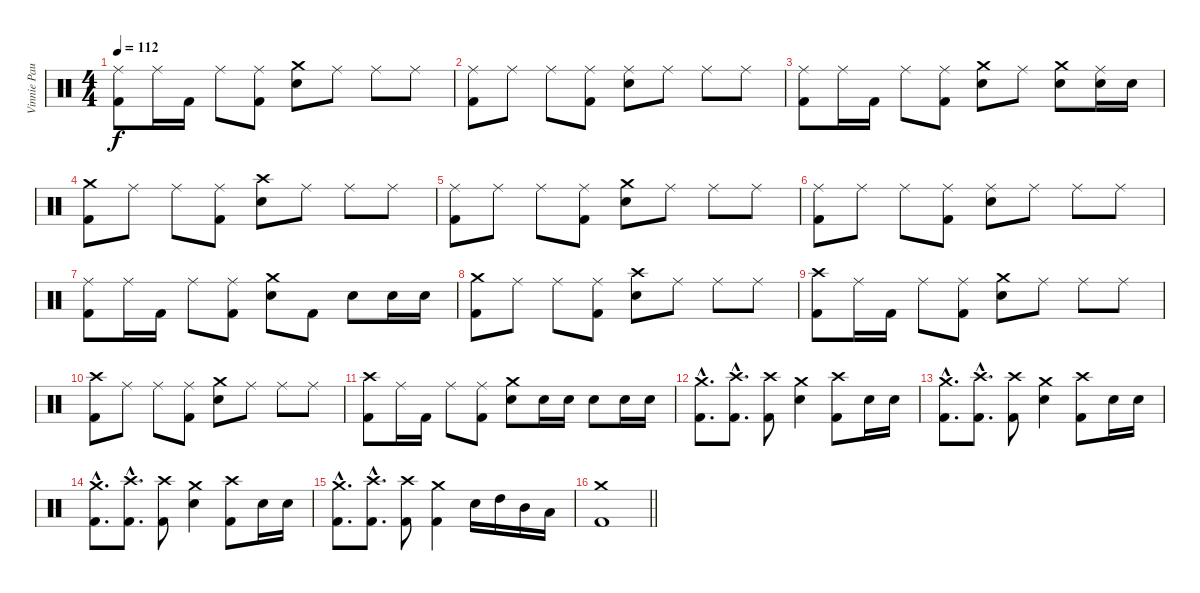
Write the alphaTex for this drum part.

\track ("Vinnie Paul" "Vinnie Pau") {instrument percussion}
\staff {score}
\articulation defaults
\ts (4 4)
\tempo 112
\clef neutral
\ks c
("Ride (middle)" "Kick (hit) 2").8{dy f} "Ride (middle)".16 "Kick (hit) 2".16 "Ride (middle)".8 ("Ride (middle)" "Kick (hit) 2").8 ("Crash medium (hit)" "Electric Snare (hit)").8 "Ride (middle)".8 "Ride (middle)".8 "Ride (middle)".8 |
("Ride (middle)" "Kick (hit) 2").8 "Ride (middle)".8 "Ride (middle)".8 ("Ride (middle)" "Kick (hit) 2").8 ("Ride (middle)" "Electric Snare (hit)").8 "Ride (middle)".8 "Ride (middle)".8 "Ride (middle)".8 |
("Ride (middle)" "Kick (hit) 2").8 "Ride (middle)".16 "Kick (hit) 2".16 "Ride (middle)".8 ("Ride (middle)" "Kick (hit) 2").8 ("Crash medium (hit)" "Electric Snare (hit)").8 "Ride (middle)".8 ("Crash medium (hit)" "Electric Snare (hit)").8 ("Ride (middle)" "Electric Snare (hit)").16 "Electric Snare (hit)".16 |
("Crash medium (hit)" "Kick (hit) 2").8 "Ride (middle)".8 "Ride (middle)".8 ("Ride (middle)" "Kick (hit) 2").8 ("Crash high (hit)" "Electric Snare (hit)").8 "Ride (middle)".8 "Ride (middle)".8 "Ride (middle)".8 |
("Ride (middle)" "Kick (hit) 2").8 "Ride (middle)".8 "Ride (middle)".8 ("Ride (middle)" "Kick (hit) 2").8 ("Crash medium (hit)" "Electric Snare (hit)").8 "Ride (middle)".8 "Ride (middle)".8 "Ride (middle)".8 |
("Ride (middle)" "Kick (hit) 2").8 "Ride (middle)".8 "Ride (middle)".8 ("Ride (middle)" "Kick (hit) 2").8 ("Ride (middle)" "Electric Snare (hit)").8 "Ride (middle)".8 "Ride (middle)".8 "Ride (middle)".8 |
("Ride (middle)" "Kick (hit) 2").8 "Ride (middle)".16 "Kick (hit) 2".16 "Ride (middle)".8 ("Ride (middle)" "Kick (hit) 2").8 ("Crash medium (hit)" "Electric Snare (hit)").8 "Kick (hit) 2".8 "Electric Snare (hit)".8 "Electric Snare (hit)".16 "Electric Snare (hit)".16 |
("Crash medium (hit)" "Kick (hit) 2").8 "Ride (middle)".8 "Ride (middle)".8 ("Ride (middle)" "Kick (hit) 2").8 ("Crash high (hit)" "Electric Snare (hit)").8 "Ride (middle)".8 "Ride (middle)".8 "Ride (middle)".8 |
("Crash high (hit)" "Kick (hit) 2").8 "Ride (middle)".16 "Kick (hit) 2".16 "Ride (middle)".8 ("Ride (middle)" "Kick (hit) 2").8 ("Crash medium (hit)" "Electric Snare (hit)").8 "Ride (middle)".8 "Ride (middle)".8 "Ride (middle)".8 |
("Crash high (hit)" "Kick (hit) 2").8 "Ride (middle)".8 "Ride (middle)".8 ("Ride (middle)" "Kick (hit) 2").8 ("Crash medium (hit)" "Electric Snare (hit)").8 "Ride (middle)".8 "Ride (middle)".8 "Ride (middle)".8 |
("Crash high (hit)" "Kick (hit) 2").8 "Ride (middle)".16 "Kick (hit) 2".16 "Ride (middle)".8 ("Ride (middle)" "Kick (hit) 2").8 ("Crash medium (hit)" "Electric Snare (hit)").8 "Electric Snare (hit)".16 "Electric Snare (hit)".16 "Electric Snare (hit)".8 "Electric Snare (hit)".16 "Electric Snare (hit)".16 |
("Crash medium (hit)"{hac} "Kick (hit) 2"{hac}).8{d} ("Crash high (hit)"{hac} "Kick (hit) 2"{hac}).8{d} ("Crash high (hit)" "Kick (hit) 2").8 ("Crash medium (hit)" "Electric Snare (hit)").4 ("Crash high (hit)" "Kick (hit) 2").8 "Electric Snare (hit)".16 "Electric Snare (hit)".16 |
("Crash medium (hit)"{hac} "Kick (hit) 2"{hac}).8{d} ("Crash high (hit)"{hac} "Kick (hit) 2"{hac}).8{d} ("Crash high (hit)" "Kick (hit) 2").8 ("Crash medium (hit)" "Electric Snare (hit)").4 ("Crash high (hit)" "Kick (hit) 2").8 "Electric Snare (hit)".16 "Electric Snare (hit)".16 |
("Crash medium (hit)"{hac} "Kick (hit) 2"{hac}).8{d} ("Crash high (hit)"{hac} "Kick (hit) 2"{hac}).8{d} ("Crash high (hit)" "Kick (hit) 2").8 ("Crash medium (hit)" "Electric Snare (hit)").4 ("Crash high (hit)" "Kick (hit) 2").8 "Electric Snare (hit)".16 "Electric Snare (hit)".16 |
("Crash medium (hit)"{hac} "Kick (hit) 2"{hac}).8{d} ("Crash high (hit)"{hac} "Kick (hit) 2"{hac}).8{d} ("Crash high (hit)" "Kick (hit) 2").8 ("Crash medium (hit)" "Kick (hit) 2").4 "Electric Snare (hit)".16 "High Tom (hit)".16 "Mid Tom (hit)".16 "Low Tom (hit)".16 |
\barLineRight lightlight
("Crash medium (hit)" "Kick (hit) 2").1
